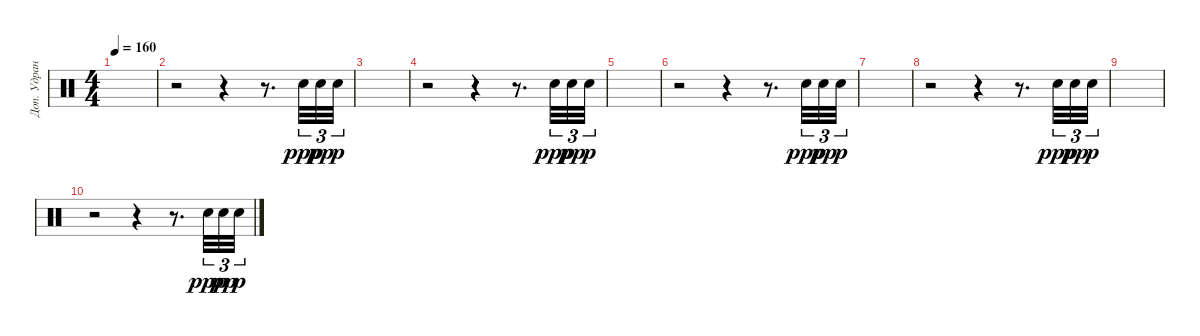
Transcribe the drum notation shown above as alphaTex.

\track ("Доп. Удраные" "Доп. Удран") {instrument percussion}
\staff {score}
\articulation defaults
\ts (4 4)
\tempo 160
\clef neutral
\ks c
|
r.2 r.4 r.8{d} "Snare (hit) 2".32{tu (3 2) dy ppp} "Snare (hit) 2".32{tu (3 2) dy pp} "Snare (hit) 2".32{tu (3 2) dy p} |
|
r.2 r.4 r.8{d} "Snare (hit) 2".32{tu (3 2) dy ppp} "Snare (hit) 2".32{tu (3 2) dy pp} "Snare (hit) 2".32{tu (3 2) dy p} |
|
r.2 r.4 r.8{d} "Snare (hit) 2".32{tu (3 2) dy ppp} "Snare (hit) 2".32{tu (3 2) dy pp} "Snare (hit) 2".32{tu (3 2) dy p} |
|
r.2 r.4 r.8{d} "Snare (hit) 2".32{tu (3 2) dy ppp} "Snare (hit) 2".32{tu (3 2) dy pp} "Snare (hit) 2".32{tu (3 2) dy p} |
|
r.2 r.4 r.8{d} "Snare (hit) 2".32{tu (3 2) dy ppp} "Snare (hit) 2".32{tu (3 2) dy pp} "Snare (hit) 2".32{tu (3 2) dy p}
